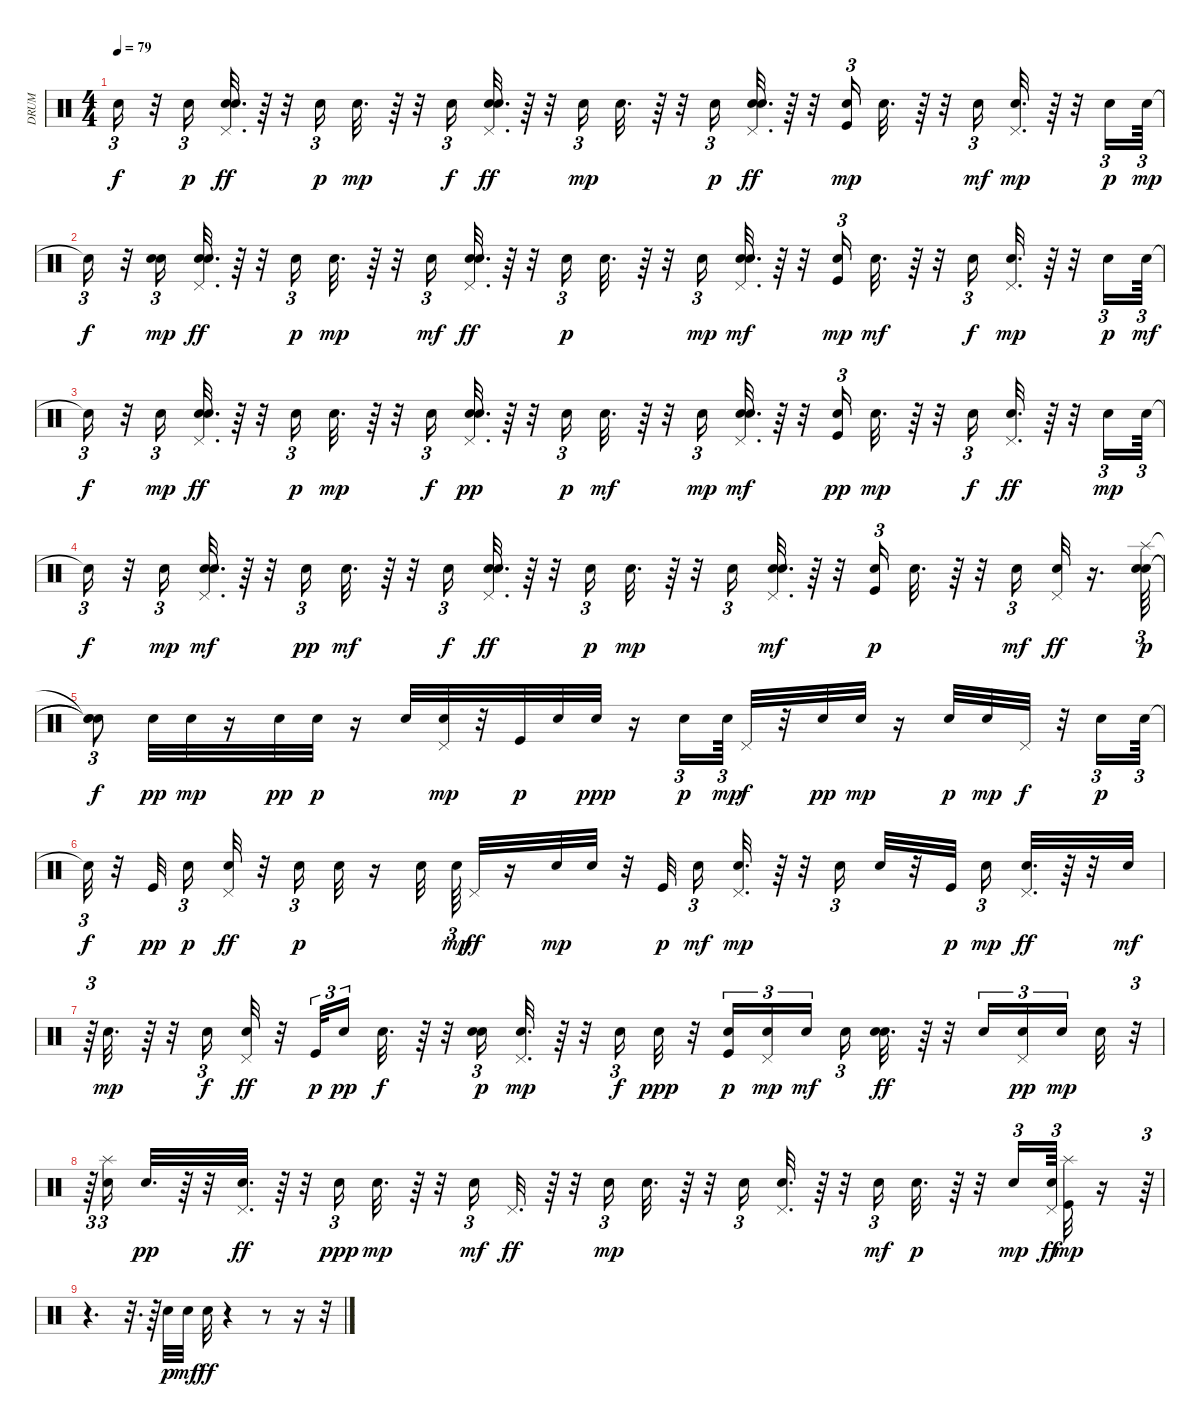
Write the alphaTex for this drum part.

\track ("DRUM" "DRUM") {instrument percussion}
\staff {score}
\articulation defaults
\ts (4 4)
\tempo 79
\clef neutral
\ks c "Snare (hit)"{t}.16{tu (3 2) dy f}
r.32 "Snare (hit) 2".16{tu (3 2) dy p} ("Hand Clap (hit)" "Snare (hit) 2" "Pedal Hi-Hat (hit)").32{d dy ff} r.64 r.32 "Snare (hit) 2".16{tu (3 2) dy p} "Snare (hit) 2".32{d dy mp} r.64 r.32 "Snare (hit) 2".16{tu (3 2) dy f} ("Hand Clap (hit)" "Snare (hit) 2" "Pedal Hi-Hat (hit)").32{d dy ff} r.64 r.32 "Snare (hit) 2".16{tu (3 2) dy mp} "Snare (hit) 2".32{d} r.64 r.32 "Snare (hit) 2".16{tu (3 2) dy p} ("Snare (hit) 2" "Hand Clap (hit)" "Pedal Hi-Hat (hit)").32{d dy ff} r.64 r.32 ("Kick (hit)" "Snare (hit) 2").16{tu (3 2) dy mp} "Snare (hit) 2".32{d} r.64 r.32 "Hand Clap (hit)".16{tu (3 2) dy mf} ("Pedal Hi-Hat (hit)" "Snare (hit) 2").32{d dy mp} r.64 r.32 "Snare (hit) 2".16{tu (3 2) dy p} "Snare (hit) 2".64{tu (3 2) dy mp} |
"Snare (hit)"{t}.16{tu (3 2) dy f} r.32 ("Electric Snare (hit)" "Snare (hit) 2").16{tu (3 2) dy mp} ("Hand Clap (hit)" "Snare (hit) 2" "Pedal Hi-Hat (hit)").32{d dy ff} r.64 r.32 "Snare (hit) 2".16{tu (3 2) dy p} "Snare (hit) 2".32{d dy mp} r.64 r.32 "Snare (hit) 2".16{tu (3 2) dy mf} ("Hand Clap (hit)" "Snare (hit) 2" "Pedal Hi-Hat (hit)").32{d dy ff} r.64 r.32 "Snare (hit) 2".16{tu (3 2) dy p} "Snare (hit) 2".32{d} r.64 r.32 "Snare (hit) 2".16{tu (3 2) dy mp} ("Snare (hit) 2" "Pedal Hi-Hat (hit)" "Hand Clap (hit)").32{d dy mf} r.64 r.32 ("Snare (hit) 2" "Kick (hit)").16{tu (3 2) dy mp} "Snare (hit) 2".32{d dy mf} r.64 r.32 "Hand Clap (hit)".16{tu (3 2) dy f} ("Pedal Hi-Hat (hit)" "Snare (hit) 2").32{d dy mp} r.64 r.32 "Snare (hit) 2".16{tu (3 2) dy p} "Snare (hit) 2".64{tu (3 2) dy mf} |
"Snare (hit)"{t}.16{tu (3 2) dy f} r.32 "Snare (hit) 2".16{tu (3 2) dy mp} ("Hand Clap (hit)" "Pedal Hi-Hat (hit)" "Snare (hit) 2").32{d dy ff} r.64 r.32 "Snare (hit) 2".16{tu (3 2) dy p} "Snare (hit) 2".32{d dy mp} r.64 r.32 "Snare (hit) 2".16{tu (3 2) dy f} ("Hand Clap (hit)" "Snare (hit) 2" "Pedal Hi-Hat (hit)").32{d dy pp} r.64 r.32 "Snare (hit) 2".16{tu (3 2) dy p} "Snare (hit) 2".32{d dy mf} r.64 r.32 "Snare (hit) 2".16{tu (3 2) dy mp} ("Snare (hit) 2" "Pedal Hi-Hat (hit)" "Hand Clap (hit)").32{d dy mf} r.64 r.32 ("Snare (hit) 2" "Kick (hit)").16{tu (3 2) dy pp} "Snare (hit) 2".32{d dy mp} r.64 r.32 "Hand Clap (hit)".16{tu (3 2) dy f} ("Snare (hit) 2" "Pedal Hi-Hat (hit)").32{d dy ff} r.64 r.32 "Snare (hit) 2".16{tu (3 2) dy mp} "Snare (hit) 2".64{tu (3 2)} |
"Snare (hit)"{t}.16{tu (3 2) dy f} r.32 "Snare (hit) 2".16{tu (3 2) dy mp} ("Hand Clap (hit)" "Pedal Hi-Hat (hit)" "Snare (hit) 2").32{d dy mf} r.64 r.32 "Snare (hit) 2".16{tu (3 2) dy pp} "Snare (hit) 2".32{d dy mf} r.64 r.32 "Snare (hit) 2".16{tu (3 2) dy f} ("Hand Clap (hit)" "Snare (hit) 2" "Pedal Hi-Hat (hit)").32{d dy ff} r.64 r.32 "Snare (hit) 2".16{tu (3 2) dy p} "Snare (hit) 2".32{d dy mp} r.64 r.32 "Snare (hit) 2".16{tu (3 2)} ("Snare (hit) 2" "Hand Clap (hit)" "Pedal Hi-Hat (hit)").32{d dy mf} r.64 r.32 ("Snare (hit) 2" "Kick (hit)").16{tu (3 2) dy p} "Snare (hit) 2".32{d} r.64 r.32 "Hand Clap (hit)".16{tu (3 2) dy mf} ("Snare (hit) 2" "Pedal Hi-Hat (hit)").32{dy ff} r.16{d} ("Hand Clap (hit)" "Splash (hit)" "Hand Clap (hit)").64{tu (3 2) dy p} |
("Snare (hit)"{t} "Snare (hit)"{t} "Snare (hit)"{t}).8{tu (3 2) dy f} "Hand Clap (hit)".32{dy pp} "Hand Clap (hit)".32{dy mp} r.16 "Hand Clap (hit)".32{dy pp} "Hand Clap (hit)".32{dy p} r.16 "Hand Clap (hit)".32 ("Hand Clap (hit)" "Pedal Hi-Hat (hit)").32{dy mp} r.32 "Kick (hit)".32{dy p} "Hand Clap (hit)".32 "Hand Clap (hit)".32{dy ppp} r.16 "Hand Clap (hit)".16{tu (3 2) dy p} "Hand Clap (hit)".64{tu (3 2) dy mp} "Pedal Hi-Hat (hit)".32{dy f} r.32 "Hand Clap (hit)".32{dy pp} "Hand Clap (hit)".32{dy mp} r.16 "Hand Clap (hit)".32{dy p} "Hand Clap (hit)".32{dy mp} "Pedal Hi-Hat (hit)".32{dy f} r.32 "Hand Clap (hit)".16{tu (3 2) dy p} "Hand Clap (hit)".64{tu (3 2)} |
"Snare (hit)"{t}.32{tu (3 2) dy f} r.32 "Kick (hit)".32{dy pp} "Hand Clap (hit)".16{tu (3 2) dy p} ("Hand Clap (hit)" "Pedal Hi-Hat (hit)").32{dy ff} r.32 "Hand Clap (hit)".16{tu (3 2) dy p} "Hand Clap (hit)".32 r.16 "Hand Clap (hit)".32 "Hand Clap (hit)".64{tu (3 2) dy mp} "Pedal Hi-Hat (hit)".32{dy ff} r.16 "Hand Clap (hit)".32{dy mp} "Hand Clap (hit)".32 r.32 "Kick (hit)".32{dy p} "Hand Clap (hit)".16{tu (3 2) dy mf} ("Pedal Hi-Hat (hit)" "Hand Clap (hit)").32{d dy mp} r.64 r.32 "Hand Clap (hit)".16{tu (3 2)} "Hand Clap (hit)".32 r.32 "Kick (hit)".32{dy p} "Snare (hit) 2".16{tu (3 2) dy mp} ("Pedal Hi-Hat (hit)" "Hand Clap (hit)").32{d dy ff} r.64 r.32 "Snare (hit) 2".32{dy mf} |
r.64{tu (3 2)} "Hand Clap (hit)".32{d dy mp} r.64 r.32 "Hand Clap (hit)".16{tu (3 2) dy f} ("Pedal Hi-Hat (hit)" "Snare (hit) 2").32{dy ff} r.32 "Kick (hit)".32{tu (3 2) dy p} "Hand Clap (hit)".16{tu (3 2) dy pp} "Hand Clap (hit)".32{d dy f} r.64 r.32 ("Electric Snare (hit)" "Snare (hit) 2").16{tu (3 2) dy p} ("Pedal Hi-Hat (hit)" "Hand Clap (hit)").32{d dy mp} r.64 r.32 "Hand Clap (hit)".16{tu (3 2) dy f} "Hand Clap (hit)".32{dy ppp} r.32 ("Kick (hit)" "Snare (hit) 2").16{tu (3 2) dy p} ("Pedal Hi-Hat (hit)" "Hand Clap (hit)").16{tu (3 2) dy mp} "Hand Clap (hit)".16{tu (3 2) dy mf} "Hand Clap (hit)".16{tu (3 2)} ("Snare (hit) 2" "Hand Clap (hit)").32{d dy ff} r.64 r.32 "Hand Clap (hit)".16{tu (3 2)} ("Pedal Hi-Hat (hit)" "Hand Clap (hit)").16{tu (3 2) dy pp} "Snare (hit) 2".16{tu (3 2) dy mp} "Hand Clap (hit)".32 r.32{tu (3 2)} |
r.64{tu (3 2)} ("Splash (hit)" "Hand Clap (hit)").16{tu (3 2)} "Hand Clap (hit)".32{d dy pp} r.64 r.32 ("Pedal Hi-Hat (hit)" "Hand Clap (hit)").32{d dy ff} r.64 r.32 "Hand Clap (hit)".16{tu (3 2) dy ppp} "Snare (hit) 2".32{d dy mp} r.64 r.32 "Hand Clap (hit)".16{tu (3 2) dy mf} "Pedal Hi-Hat (hit)".32{d dy ff} r.64 r.32 "Snare (hit) 2".16{tu (3 2) dy mp} "Hand Clap (hit)".32{d} r.64 r.32 "Snare (hit) 2".16{tu (3 2)} ("Hand Clap (hit)" "Pedal Hi-Hat (hit)").32{d} r.64 r.32 "Hand Clap (hit)".16{tu (3 2) dy mf} "Hand Clap (hit)".32{d dy p} r.64 r.32 "Snare (hit) 2".16{tu (3 2) dy mp} ("Hand Clap (hit)" "Pedal Hi-Hat (hit)").64{tu (3 2) dy ff} ("Splash (hit)" "Kick (hit)").32{dy mp} r.16 r.64{tu (3 2)} |
r.4{d} r.32{d} r.64 "Snare (hit) 2".32{dy p} "Snare (hit) 2".32{dy mf} "Hand Clap (hit)".32{dy ff} r.4 r.8 r.16 r.32
